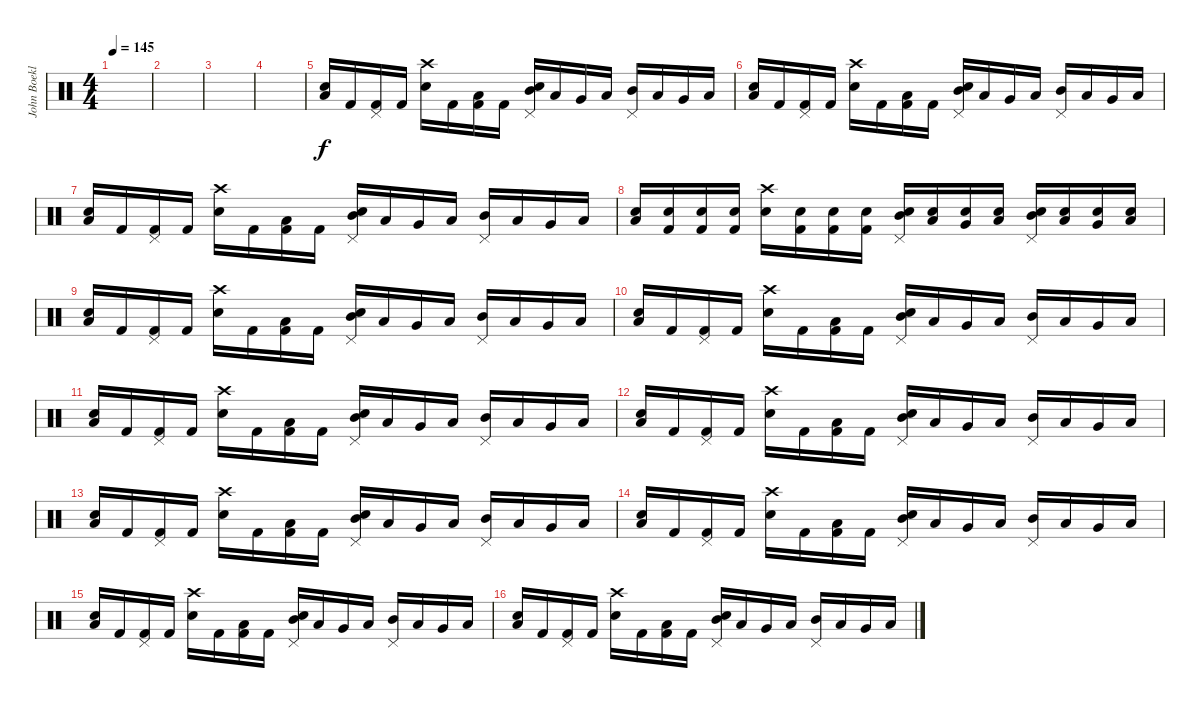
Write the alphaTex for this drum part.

\track ("John Boeklin" "John Boekl") {instrument percussion}
\staff {score}
\articulation defaults
\ts (4 4)
\tempo 145
\clef neutral
\ks c
|
|
|
|
("Electric Snare (hit)" "Low Floor Tom (hit)").16 "Kick (hit) 2".16 ("Pedal Hi-Hat (hit)" "Kick (hit) 2").16 "Kick (hit) 2".16 ("Electric Snare (hit)" "Crash high (hit)").16 "Kick (hit) 2".16 ("Low Floor Tom (hit)" "Kick (hit) 2").16 "Kick (hit) 2".16 ("Electric Snare (hit)" "Mid Tom (hit)" "Pedal Hi-Hat (hit)").16 "Low Tom (hit)".16 "Very Low Tom (hit)".16 "Low Floor Tom (hit)".16 ("Mid Tom (hit)" "Pedal Hi-Hat (hit)").16 "Low Tom (hit)".16 "Very Low Tom (hit)".16 "Low Floor Tom (hit)".16 |
("Electric Snare (hit)" "Low Floor Tom (hit)").16 "Kick (hit) 2".16 ("Pedal Hi-Hat (hit)" "Kick (hit) 2").16 "Kick (hit) 2".16 ("Electric Snare (hit)" "Crash high (hit)").16 "Kick (hit) 2".16 ("Low Floor Tom (hit)" "Kick (hit) 2").16 "Kick (hit) 2".16 ("Electric Snare (hit)" "Mid Tom (hit)" "Pedal Hi-Hat (hit)").16 "Low Tom (hit)".16 "Very Low Tom (hit)".16 "Low Floor Tom (hit)".16 ("Mid Tom (hit)" "Pedal Hi-Hat (hit)").16 "Low Tom (hit)".16 "Very Low Tom (hit)".16 "Low Floor Tom (hit)".16 |
("Electric Snare (hit)" "Low Floor Tom (hit)").16 "Kick (hit) 2".16 ("Pedal Hi-Hat (hit)" "Kick (hit) 2").16 "Kick (hit) 2".16 ("Electric Snare (hit)" "Crash high (hit)").16 "Kick (hit) 2".16 ("Low Floor Tom (hit)" "Kick (hit) 2").16 "Kick (hit) 2".16 ("Electric Snare (hit)" "Mid Tom (hit)" "Pedal Hi-Hat (hit)").16 "Low Tom (hit)".16 "Very Low Tom (hit)".16 "Low Floor Tom (hit)".16 ("Mid Tom (hit)" "Pedal Hi-Hat (hit)").16 "Low Tom (hit)".16 "Very Low Tom (hit)".16 "Low Floor Tom (hit)".16 |
("Low Floor Tom (hit)" "Electric Snare (hit)").16 ("Electric Snare (hit)" "Kick (hit) 2").16 ("Electric Snare (hit)" "Kick (hit) 2").16 ("Electric Snare (hit)" "Kick (hit) 2").16 ("Crash high (hit)" "Electric Snare (hit)").16 ("Electric Snare (hit)" "Kick (hit) 2").16 ("Electric Snare (hit)" "Kick (hit) 2").16 ("Electric Snare (hit)" "Kick (hit) 2").16 ("Mid Tom (hit)" "Pedal Hi-Hat (hit)" "Electric Snare (hit)").16 ("Low Tom (hit)" "Electric Snare (hit)").16 ("Very Low Tom (hit)" "Electric Snare (hit)").16 ("Low Floor Tom (hit)" "Electric Snare (hit)").16 ("Mid Tom (hit)" "Pedal Hi-Hat (hit)" "Electric Snare (hit)").16 ("Low Tom (hit)" "Electric Snare (hit)").16 ("Very Low Tom (hit)" "Electric Snare (hit)").16 ("Low Floor Tom (hit)" "Electric Snare (hit)").16 |
("Electric Snare (hit)" "Low Floor Tom (hit)").16 "Kick (hit) 2".16 ("Pedal Hi-Hat (hit)" "Kick (hit) 2").16 "Kick (hit) 2".16 ("Electric Snare (hit)" "Crash high (hit)").16 "Kick (hit) 2".16 ("Low Floor Tom (hit)" "Kick (hit) 2").16 "Kick (hit) 2".16 ("Electric Snare (hit)" "Mid Tom (hit)" "Pedal Hi-Hat (hit)").16 "Low Tom (hit)".16 "Very Low Tom (hit)".16 "Low Floor Tom (hit)".16 ("Mid Tom (hit)" "Pedal Hi-Hat (hit)").16 "Low Tom (hit)".16 "Very Low Tom (hit)".16 "Low Floor Tom (hit)".16 |
("Electric Snare (hit)" "Low Floor Tom (hit)").16 "Kick (hit) 2".16 ("Pedal Hi-Hat (hit)" "Kick (hit) 2").16 "Kick (hit) 2".16 ("Electric Snare (hit)" "Crash high (hit)").16 "Kick (hit) 2".16 ("Low Floor Tom (hit)" "Kick (hit) 2").16 "Kick (hit) 2".16 ("Electric Snare (hit)" "Mid Tom (hit)" "Pedal Hi-Hat (hit)").16 "Low Tom (hit)".16 "Very Low Tom (hit)".16 "Low Floor Tom (hit)".16 ("Mid Tom (hit)" "Pedal Hi-Hat (hit)").16 "Low Tom (hit)".16 "Very Low Tom (hit)".16 "Low Floor Tom (hit)".16 |
("Electric Snare (hit)" "Low Floor Tom (hit)").16 "Kick (hit) 2".16 ("Pedal Hi-Hat (hit)" "Kick (hit) 2").16 "Kick (hit) 2".16 ("Electric Snare (hit)" "Crash high (hit)").16 "Kick (hit) 2".16 ("Low Floor Tom (hit)" "Kick (hit) 2").16 "Kick (hit) 2".16 ("Electric Snare (hit)" "Mid Tom (hit)" "Pedal Hi-Hat (hit)").16 "Low Tom (hit)".16 "Very Low Tom (hit)".16 "Low Floor Tom (hit)".16 ("Mid Tom (hit)" "Pedal Hi-Hat (hit)").16 "Low Tom (hit)".16 "Very Low Tom (hit)".16 "Low Floor Tom (hit)".16 |
("Electric Snare (hit)" "Low Floor Tom (hit)").16 "Kick (hit) 2".16 ("Pedal Hi-Hat (hit)" "Kick (hit) 2").16 "Kick (hit) 2".16 ("Electric Snare (hit)" "Crash high (hit)").16 "Kick (hit) 2".16 ("Low Floor Tom (hit)" "Kick (hit) 2").16 "Kick (hit) 2".16 ("Electric Snare (hit)" "Mid Tom (hit)" "Pedal Hi-Hat (hit)").16 "Low Tom (hit)".16 "Very Low Tom (hit)".16 "Low Floor Tom (hit)".16 ("Mid Tom (hit)" "Pedal Hi-Hat (hit)").16 "Low Tom (hit)".16 "Very Low Tom (hit)".16 "Low Floor Tom (hit)".16 |
("Electric Snare (hit)" "Low Floor Tom (hit)").16 "Kick (hit) 2".16 ("Pedal Hi-Hat (hit)" "Kick (hit) 2").16 "Kick (hit) 2".16 ("Electric Snare (hit)" "Crash high (hit)").16 "Kick (hit) 2".16 ("Low Floor Tom (hit)" "Kick (hit) 2").16 "Kick (hit) 2".16 ("Electric Snare (hit)" "Mid Tom (hit)" "Pedal Hi-Hat (hit)").16 "Low Tom (hit)".16 "Very Low Tom (hit)".16 "Low Floor Tom (hit)".16 ("Mid Tom (hit)" "Pedal Hi-Hat (hit)").16 "Low Tom (hit)".16 "Very Low Tom (hit)".16 "Low Floor Tom (hit)".16 |
("Electric Snare (hit)" "Low Floor Tom (hit)").16 "Kick (hit) 2".16 ("Pedal Hi-Hat (hit)" "Kick (hit) 2").16 "Kick (hit) 2".16 ("Electric Snare (hit)" "Crash high (hit)").16 "Kick (hit) 2".16 ("Low Floor Tom (hit)" "Kick (hit) 2").16 "Kick (hit) 2".16 ("Electric Snare (hit)" "Mid Tom (hit)" "Pedal Hi-Hat (hit)").16 "Low Tom (hit)".16 "Very Low Tom (hit)".16 "Low Floor Tom (hit)".16 ("Mid Tom (hit)" "Pedal Hi-Hat (hit)").16 "Low Tom (hit)".16 "Very Low Tom (hit)".16 "Low Floor Tom (hit)".16 |
("Electric Snare (hit)" "Low Floor Tom (hit)").16 "Kick (hit) 2".16 ("Pedal Hi-Hat (hit)" "Kick (hit) 2").16 "Kick (hit) 2".16 ("Electric Snare (hit)" "Crash high (hit)").16 "Kick (hit) 2".16 ("Low Floor Tom (hit)" "Kick (hit) 2").16 "Kick (hit) 2".16 ("Electric Snare (hit)" "Mid Tom (hit)" "Pedal Hi-Hat (hit)").16 "Low Tom (hit)".16 "Very Low Tom (hit)".16 "Low Floor Tom (hit)".16 ("Mid Tom (hit)" "Pedal Hi-Hat (hit)").16 "Low Tom (hit)".16 "Very Low Tom (hit)".16 "Low Floor Tom (hit)".16 |
("Electric Snare (hit)" "Low Floor Tom (hit)").16 "Kick (hit) 2".16 ("Pedal Hi-Hat (hit)" "Kick (hit) 2").16 "Kick (hit) 2".16 ("Electric Snare (hit)" "Crash high (hit)").16 "Kick (hit) 2".16 ("Low Floor Tom (hit)" "Kick (hit) 2").16 "Kick (hit) 2".16 ("Electric Snare (hit)" "Mid Tom (hit)" "Pedal Hi-Hat (hit)").16 "Low Tom (hit)".16 "Very Low Tom (hit)".16 "Low Floor Tom (hit)".16 ("Mid Tom (hit)" "Pedal Hi-Hat (hit)").16 "Low Tom (hit)".16 "Very Low Tom (hit)".16 "Low Floor Tom (hit)".16
